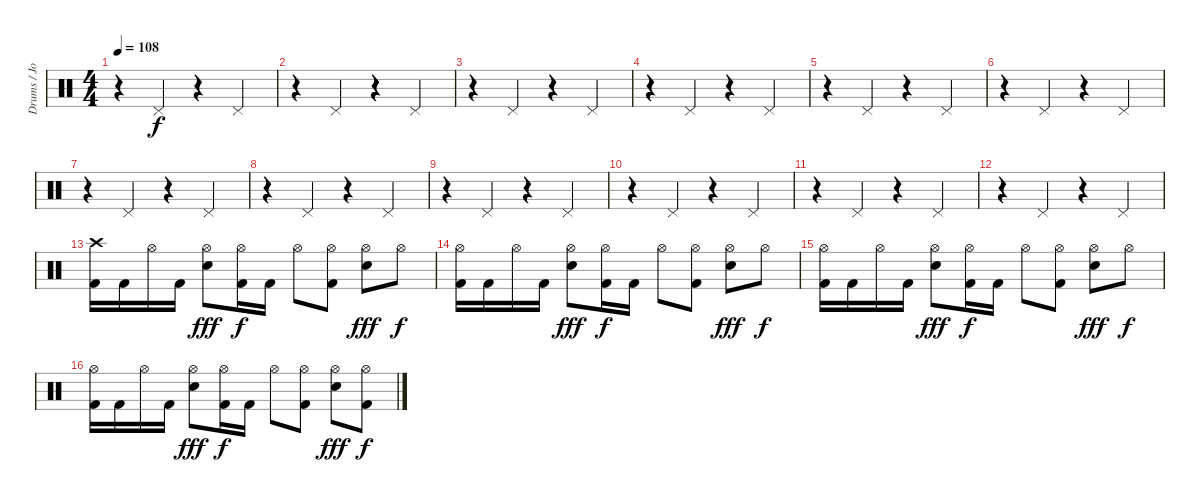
\track ("Drums / Jon Wysocki" "Drums / Jo") {instrument percussion}
\staff {score}
\articulation defaults
\ts (4 4)
\tempo 108
\clef neutral
\ks c
r.4{dy f} "Pedal Hi-Hat (hit)".4 r.4 "Pedal Hi-Hat (hit)".4 |
r.4 "Pedal Hi-Hat (hit)".4 r.4 "Pedal Hi-Hat (hit)".4 |
r.4 "Pedal Hi-Hat (hit)".4 r.4 "Pedal Hi-Hat (hit)".4 |
r.4 "Pedal Hi-Hat (hit)".4 r.4 "Pedal Hi-Hat (hit)".4 |
r.4 "Pedal Hi-Hat (hit)".4 r.4 "Pedal Hi-Hat (hit)".4 |
r.4 "Pedal Hi-Hat (hit)".4 r.4 "Pedal Hi-Hat (hit)".4 |
r.4 "Pedal Hi-Hat (hit)".4 r.4 "Pedal Hi-Hat (hit)".4 |
r.4 "Pedal Hi-Hat (hit)".4 r.4 "Pedal Hi-Hat (hit)".4 |
r.4 "Pedal Hi-Hat (hit)".4 r.4 "Pedal Hi-Hat (hit)".4 |
r.4 "Pedal Hi-Hat (hit)".4 r.4 "Pedal Hi-Hat (hit)".4 |
r.4 "Pedal Hi-Hat (hit)".4 r.4 "Pedal Hi-Hat (hit)".4 |
r.4 "Pedal Hi-Hat (hit)".4 r.4 "Pedal Hi-Hat (hit)".4 |
("Crash high (hit)" "Kick (hit) 2").16 "Kick (hit) 2".16 "Hi-Hat (open)".16 "Kick (hit) 2".16 ("Hi-Hat (open)" "Electric Snare (hit)").8{dy fff} ("Hi-Hat (open)" "Kick (hit) 2").16{dy f} "Kick (hit) 2".16 "Hi-Hat (open)".8 ("Hi-Hat (open)" "Kick (hit) 2").8 ("Hi-Hat (open)" "Electric Snare (hit)").8{dy fff} "Hi-Hat (open)".8{dy f} |
("Hi-Hat (open)" "Kick (hit) 2").16 "Kick (hit) 2".16 "Hi-Hat (open)".16 "Kick (hit) 2".16 ("Hi-Hat (open)" "Electric Snare (hit)").8{dy fff} ("Hi-Hat (open)" "Kick (hit) 2").16{dy f} "Kick (hit) 2".16 "Hi-Hat (open)".8 ("Hi-Hat (open)" "Kick (hit) 2").8 ("Hi-Hat (open)" "Electric Snare (hit)").8{dy fff} "Hi-Hat (open)".8{dy f} |
("Hi-Hat (open)" "Kick (hit) 2").16 "Kick (hit) 2".16 "Hi-Hat (open)".16 "Kick (hit) 2".16 ("Hi-Hat (open)" "Electric Snare (hit)").8{dy fff} ("Hi-Hat (open)" "Kick (hit) 2").16{dy f} "Kick (hit) 2".16 "Hi-Hat (open)".8 ("Hi-Hat (open)" "Kick (hit) 2").8 ("Hi-Hat (open)" "Electric Snare (hit)").8{dy fff} "Hi-Hat (open)".8{dy f} |
("Hi-Hat (open)" "Kick (hit) 2").16 "Kick (hit) 2".16 "Hi-Hat (open)".16 "Kick (hit) 2".16 ("Hi-Hat (open)" "Electric Snare (hit)").8{dy fff} ("Hi-Hat (open)" "Kick (hit) 2").16{dy f} "Kick (hit) 2".16 "Hi-Hat (open)".8 ("Hi-Hat (open)" "Kick (hit) 2").8 ("Hi-Hat (open)" "Electric Snare (hit)").8{dy fff} ("Hi-Hat (open)" "Kick (hit) 2").8{dy f}
